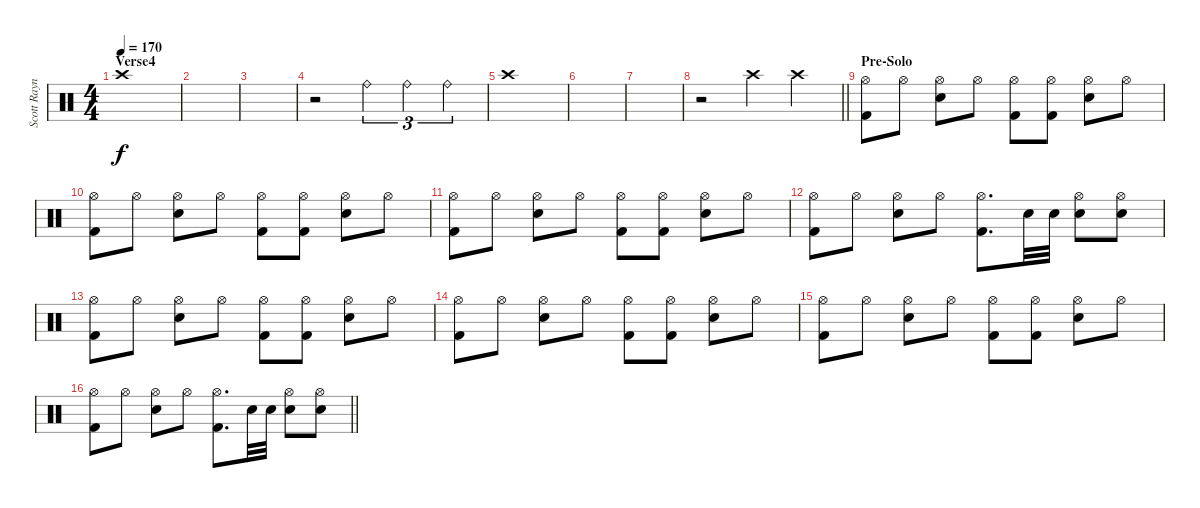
\track ("Scott Raynor" "Scott Rayn") {instrument percussion}
\staff {score}
\articulation defaults
\ts (4 4)
\section ("" "Verse4")
\tempo 170
\clef neutral
\ks c "Crash high (hit)".1{dy f}
|
|
|
r.2 "Ride (bell)".4{tu (3 2)} "Ride (bell)".4{tu (3 2)} "Ride (bell)".4{tu (3 2)} |
"Crash high (hit)".1 |
|
|
\barLineRight lightlight
r.2 "Crash high (hit)".4 "Crash high (hit)".4 |
\section ("" "Pre-Solo")
("Hi-Hat (open)" "Kick (hit) 2").8 "Hi-Hat (open)".8 ("Hi-Hat (open)" "Snare (hit) 2").8 "Hi-Hat (open)".8 ("Hi-Hat (open)" "Kick (hit) 2").8 ("Hi-Hat (open)" "Kick (hit) 2").8 ("Hi-Hat (open)" "Snare (hit) 2").8 "Hi-Hat (open)".8 |
("Hi-Hat (open)" "Kick (hit) 2").8 "Hi-Hat (open)".8 ("Hi-Hat (open)" "Snare (hit) 2").8 "Hi-Hat (open)".8 ("Hi-Hat (open)" "Kick (hit) 2").8 ("Hi-Hat (open)" "Kick (hit) 2").8 ("Hi-Hat (open)" "Snare (hit) 2").8 "Hi-Hat (open)".8 |
("Hi-Hat (open)" "Kick (hit) 2").8 "Hi-Hat (open)".8 ("Hi-Hat (open)" "Snare (hit) 2").8 "Hi-Hat (open)".8 ("Hi-Hat (open)" "Kick (hit) 2").8 ("Hi-Hat (open)" "Kick (hit) 2").8 ("Hi-Hat (open)" "Snare (hit) 2").8 "Hi-Hat (open)".8 |
("Hi-Hat (open)" "Kick (hit) 2").8 "Hi-Hat (open)".8 ("Hi-Hat (open)" "Snare (hit) 2").8 "Hi-Hat (open)".8 ("Hi-Hat (open)" "Kick (hit) 2").8{d} "Snare (hit) 2".32 "Snare (hit) 2".32 ("Hi-Hat (open)" "Snare (hit) 2").8 ("Hi-Hat (open)" "Snare (hit) 2").8 |
("Hi-Hat (open)" "Kick (hit) 2").8 "Hi-Hat (open)".8 ("Hi-Hat (open)" "Snare (hit) 2").8 "Hi-Hat (open)".8 ("Hi-Hat (open)" "Kick (hit) 2").8 ("Hi-Hat (open)" "Kick (hit) 2").8 ("Hi-Hat (open)" "Snare (hit) 2").8 "Hi-Hat (open)".8 |
("Hi-Hat (open)" "Kick (hit) 2").8 "Hi-Hat (open)".8 ("Hi-Hat (open)" "Snare (hit) 2").8 "Hi-Hat (open)".8 ("Hi-Hat (open)" "Kick (hit) 2").8 ("Hi-Hat (open)" "Kick (hit) 2").8 ("Hi-Hat (open)" "Snare (hit) 2").8 "Hi-Hat (open)".8 |
("Hi-Hat (open)" "Kick (hit) 2").8 "Hi-Hat (open)".8 ("Hi-Hat (open)" "Snare (hit) 2").8 "Hi-Hat (open)".8 ("Hi-Hat (open)" "Kick (hit) 2").8 ("Hi-Hat (open)" "Kick (hit) 2").8 ("Hi-Hat (open)" "Snare (hit) 2").8 "Hi-Hat (open)".8 |
\barLineRight lightlight
("Hi-Hat (open)" "Kick (hit) 2").8 "Hi-Hat (open)".8 ("Hi-Hat (open)" "Snare (hit) 2").8 "Hi-Hat (open)".8 ("Hi-Hat (open)" "Kick (hit) 2").8{d} "Snare (hit) 2".32 "Snare (hit) 2".32 ("Hi-Hat (open)" "Snare (hit) 2").8 ("Hi-Hat (open)" "Snare (hit) 2").8
